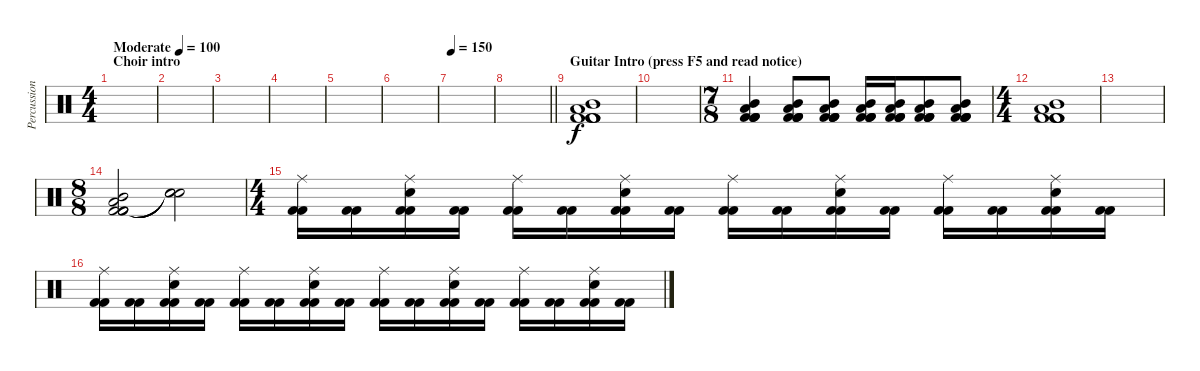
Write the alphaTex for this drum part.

\track ("Percussion" "Percussion") {instrument percussion}
\staff {score}
\articulation defaults
\ts (4 4)
\section ("" "Choir intro")
\tempo (100 "Moderate")
\clef neutral
\ks c
|
|
|
|
|
|
\tempo 150
|
\barLineRight lightlight
|
\section ("" "Guitar Intro (press F5 and read notice)")
("Kick (hit) 2" "Kick (hit) 2" "Kick (hit) 2" "Low Tom (hit)" "Mid Tom (hit)" "Kick (hit) 2").1 |
|
\ts (7 8)
("Kick (hit) 2" "Kick (hit) 2" "Kick (hit) 2" "Low Tom (hit)" "Mid Tom (hit)" "Kick (hit) 2").4 ("Kick (hit) 2" "Kick (hit) 2" "Kick (hit) 2" "Low Tom (hit)" "Mid Tom (hit)" "Kick (hit) 2").8 ("Kick (hit) 2" "Kick (hit) 2" "Kick (hit) 2" "Low Tom (hit)" "Mid Tom (hit)" "Kick (hit) 2").8 ("Kick (hit) 2" "Kick (hit) 2" "Kick (hit) 2" "Low Tom (hit)" "Mid Tom (hit)" "Kick (hit) 2").16 ("Kick (hit) 2" "Kick (hit) 2" "Kick (hit) 2" "Low Tom (hit)" "Mid Tom (hit)" "Kick (hit) 2").16 ("Kick (hit) 2" "Kick (hit) 2" "Kick (hit) 2" "Low Tom (hit)" "Mid Tom (hit)" "Kick (hit) 2").8 ("Kick (hit) 2" "Kick (hit) 2" "Kick (hit) 2" "Low Tom (hit)" "Mid Tom (hit)" "Kick (hit) 2").8 |
\ts (4 4)
("Kick (hit) 2" "Kick (hit) 2" "Kick (hit) 2" "Low Tom (hit)" "Mid Tom (hit)" "Kick (hit) 2").1 |
|
\ts (8 8)
("Kick (hit) 2" "Kick (hit) 2" "Kick (hit) 2" "Low Tom (hit)" "Mid Tom (hit)" "Kick (hit) 2").2 ("Snare (hit)"{t} "Snare (hit)"{t} "Snare (hit)"{t}).2 |
\ts (4 4)
("Kick (hit) 2" "Kick (hit) 2" "Ride (middle)").16 ("Kick (hit) 2" "Kick (hit) 2").16 ("Kick (hit) 2" "Kick (hit) 2" "Electric Snare (hit)" "Ride (middle)").16 ("Kick (hit) 2" "Kick (hit) 2").16 ("Kick (hit) 2" "Kick (hit) 2" "Ride (middle)").16 ("Kick (hit) 2" "Kick (hit) 2").16 ("Kick (hit) 2" "Kick (hit) 2" "Electric Snare (hit)" "Ride (middle)").16 ("Kick (hit) 2" "Kick (hit) 2").16 ("Kick (hit) 2" "Kick (hit) 2" "Ride (middle)").16 ("Kick (hit) 2" "Kick (hit) 2").16 ("Kick (hit) 2" "Kick (hit) 2" "Electric Snare (hit)" "Ride (middle)").16 ("Kick (hit) 2" "Kick (hit) 2").16 ("Kick (hit) 2" "Kick (hit) 2" "Ride (middle)").16 ("Kick (hit) 2" "Kick (hit) 2").16 ("Kick (hit) 2" "Kick (hit) 2" "Electric Snare (hit)" "Ride (middle)").16 ("Kick (hit) 2" "Kick (hit) 2").16 |
("Kick (hit) 2" "Kick (hit) 2" "Ride (middle)").16 ("Kick (hit) 2" "Kick (hit) 2").16 ("Kick (hit) 2" "Kick (hit) 2" "Electric Snare (hit)" "Ride (middle)").16 ("Kick (hit) 2" "Kick (hit) 2").16 ("Kick (hit) 2" "Kick (hit) 2" "Ride (middle)").16 ("Kick (hit) 2" "Kick (hit) 2").16 ("Kick (hit) 2" "Kick (hit) 2" "Electric Snare (hit)" "Ride (middle)").16 ("Kick (hit) 2" "Kick (hit) 2").16 ("Kick (hit) 2" "Kick (hit) 2" "Ride (middle)").16 ("Kick (hit) 2" "Kick (hit) 2").16 ("Kick (hit) 2" "Kick (hit) 2" "Electric Snare (hit)" "Ride (middle)").16 ("Kick (hit) 2" "Kick (hit) 2").16 ("Kick (hit) 2" "Kick (hit) 2" "Ride (middle)").16 ("Kick (hit) 2" "Kick (hit) 2").16 ("Kick (hit) 2" "Kick (hit) 2" "Electric Snare (hit)" "Ride (middle)").16 ("Kick (hit) 2" "Kick (hit) 2").16
